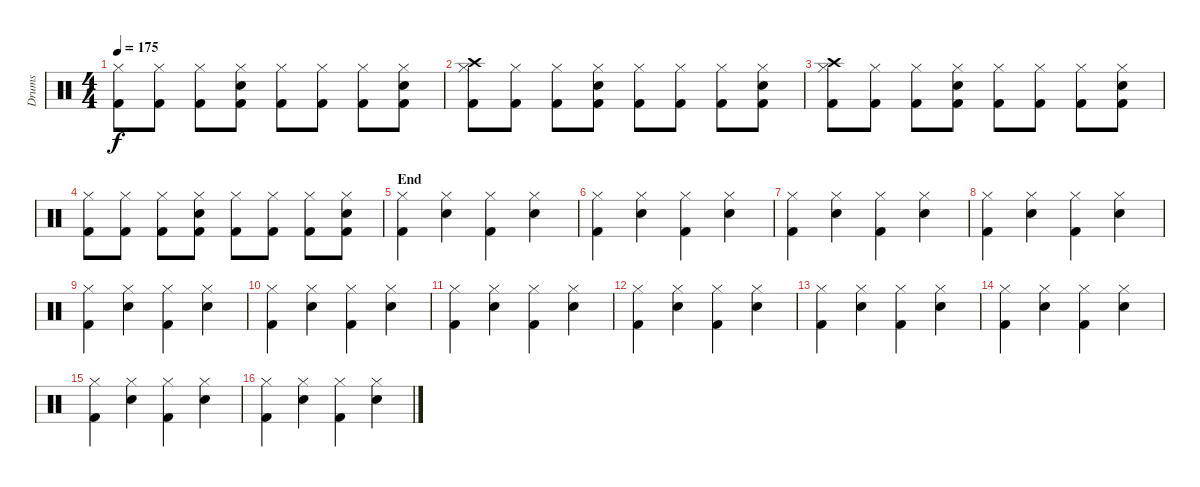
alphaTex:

\track ("Drums" "Drums") {instrument percussion}
\staff {score}
\articulation defaults
\ts (4 4)
\tempo 175
\clef neutral
\ks c
("Kick (hit) 2" "Hi-Hat (closed)").8{dy f} ("Kick (hit) 2" "Hi-Hat (closed)").8 ("Kick (hit) 2" "Hi-Hat (closed)").8 ("Kick (hit) 2" "Hi-Hat (closed)" "Snare (hit) 2").8 ("Kick (hit) 2" "Hi-Hat (closed)").8 ("Kick (hit) 2" "Hi-Hat (closed)").8 ("Kick (hit) 2" "Hi-Hat (closed)").8 ("Kick (hit) 2" "Hi-Hat (closed)" "Snare (hit) 2").8 |
("Kick (hit) 2" "Hi-Hat (closed)" "Crash high (hit)").8 ("Kick (hit) 2" "Hi-Hat (closed)").8 ("Kick (hit) 2" "Hi-Hat (closed)").8 ("Kick (hit) 2" "Hi-Hat (closed)" "Snare (hit) 2").8 ("Kick (hit) 2" "Hi-Hat (closed)").8 ("Kick (hit) 2" "Hi-Hat (closed)").8 ("Kick (hit) 2" "Hi-Hat (closed)").8 ("Kick (hit) 2" "Hi-Hat (closed)" "Snare (hit) 2").8 |
("Kick (hit) 2" "Hi-Hat (closed)" "Crash high (hit)").8 ("Kick (hit) 2" "Hi-Hat (closed)").8 ("Kick (hit) 2" "Hi-Hat (closed)").8 ("Kick (hit) 2" "Hi-Hat (closed)" "Snare (hit) 2").8 ("Kick (hit) 2" "Hi-Hat (closed)").8 ("Kick (hit) 2" "Hi-Hat (closed)").8 ("Kick (hit) 2" "Hi-Hat (closed)").8 ("Kick (hit) 2" "Hi-Hat (closed)" "Snare (hit) 2").8 |
("Kick (hit) 2" "Hi-Hat (closed)").8 ("Kick (hit) 2" "Hi-Hat (closed)").8 ("Kick (hit) 2" "Hi-Hat (closed)").8 ("Kick (hit) 2" "Hi-Hat (closed)" "Snare (hit) 2").8 ("Kick (hit) 2" "Hi-Hat (closed)").8 ("Kick (hit) 2" "Hi-Hat (closed)").8 ("Kick (hit) 2" "Hi-Hat (closed)").8 ("Kick (hit) 2" "Hi-Hat (closed)" "Snare (hit) 2").8 |
\section ("" "End")
("Kick (hit) 2" "Hi-Hat (closed)").4 ("Snare (hit) 2" "Hi-Hat (closed)").4 ("Kick (hit) 2" "Hi-Hat (closed)").4 ("Snare (hit) 2" "Hi-Hat (closed)").4 |
("Kick (hit) 2" "Hi-Hat (closed)").4 ("Snare (hit) 2" "Hi-Hat (closed)").4 ("Kick (hit) 2" "Hi-Hat (closed)").4 ("Snare (hit) 2" "Hi-Hat (closed)").4 |
("Kick (hit) 2" "Hi-Hat (closed)").4 ("Snare (hit) 2" "Hi-Hat (closed)").4 ("Kick (hit) 2" "Hi-Hat (closed)").4 ("Snare (hit) 2" "Hi-Hat (closed)").4 |
("Kick (hit) 2" "Hi-Hat (closed)").4 ("Snare (hit) 2" "Hi-Hat (closed)").4 ("Kick (hit) 2" "Hi-Hat (closed)").4 ("Snare (hit) 2" "Hi-Hat (closed)").4 |
("Kick (hit) 2" "Hi-Hat (closed)").4 ("Snare (hit) 2" "Hi-Hat (closed)").4 ("Kick (hit) 2" "Hi-Hat (closed)").4 ("Snare (hit) 2" "Hi-Hat (closed)").4 |
("Kick (hit) 2" "Hi-Hat (closed)").4 ("Snare (hit) 2" "Hi-Hat (closed)").4 ("Kick (hit) 2" "Hi-Hat (closed)").4 ("Snare (hit) 2" "Hi-Hat (closed)").4 |
("Kick (hit) 2" "Hi-Hat (closed)").4 ("Snare (hit) 2" "Hi-Hat (closed)").4 ("Kick (hit) 2" "Hi-Hat (closed)").4 ("Snare (hit) 2" "Hi-Hat (closed)").4 |
("Kick (hit) 2" "Hi-Hat (closed)").4 ("Snare (hit) 2" "Hi-Hat (closed)").4 ("Kick (hit) 2" "Hi-Hat (closed)").4 ("Snare (hit) 2" "Hi-Hat (closed)").4 |
("Kick (hit) 2" "Hi-Hat (closed)").4 ("Snare (hit) 2" "Hi-Hat (closed)").4 ("Kick (hit) 2" "Hi-Hat (closed)").4 ("Snare (hit) 2" "Hi-Hat (closed)").4 |
("Kick (hit) 2" "Hi-Hat (closed)").4 ("Snare (hit) 2" "Hi-Hat (closed)").4 ("Kick (hit) 2" "Hi-Hat (closed)").4 ("Snare (hit) 2" "Hi-Hat (closed)").4 |
("Kick (hit) 2" "Hi-Hat (closed)").4 ("Snare (hit) 2" "Hi-Hat (closed)").4 ("Kick (hit) 2" "Hi-Hat (closed)").4 ("Snare (hit) 2" "Hi-Hat (closed)").4 |
("Kick (hit) 2" "Hi-Hat (closed)").4 ("Snare (hit) 2" "Hi-Hat (closed)").4 ("Kick (hit) 2" "Hi-Hat (closed)").4 ("Snare (hit) 2" "Hi-Hat (closed)").4
